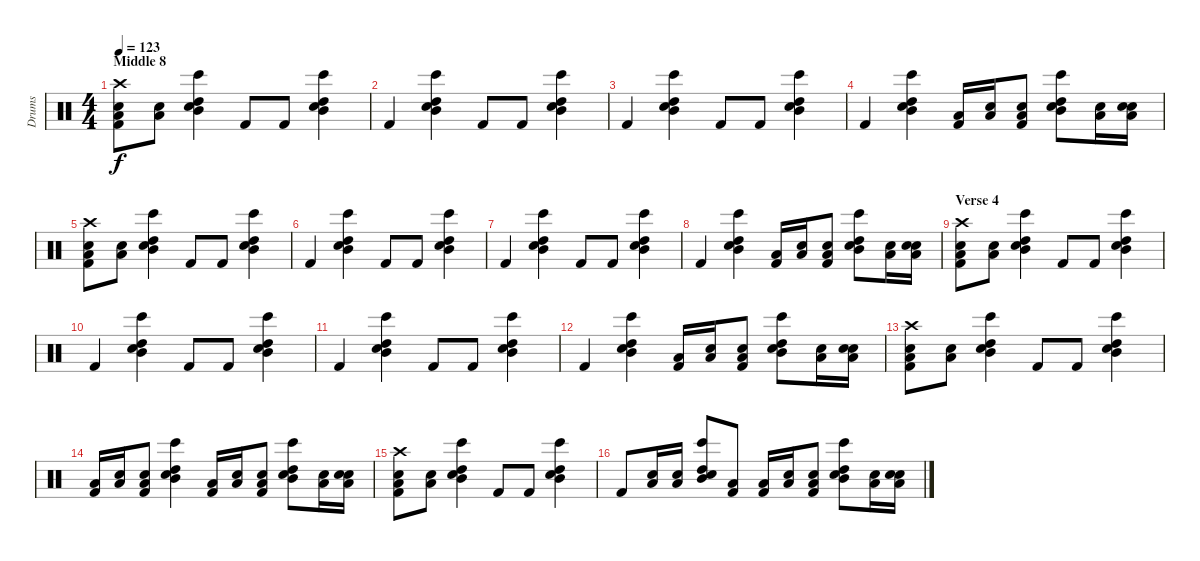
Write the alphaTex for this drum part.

\track ("Drums" "Drums") {instrument percussion}
\staff {score}
\articulation defaults
\ts (4 4)
\section ("" "Middle 8")
\tempo 123
\clef neutral
\ks c
("Crash high (hit)" "Snare (hit) 2" "Low Floor Tom (hit)" "Kick (hit) 2").8{dy f} ("Snare (hit) 2" "Low Floor Tom (hit)").8 ("Bongo High (hit)" "High Tom (hit)" "Mid Tom (hit)" "Snare (hit) 2").4 "Kick (hit) 2".8 "Kick (hit) 2".8 ("Bongo High (hit)" "High Tom (hit)" "Mid Tom (hit)" "Snare (hit) 2").4 |
"Kick (hit) 2".4 ("Bongo High (hit)" "High Tom (hit)" "Mid Tom (hit)" "Snare (hit) 2").4 "Kick (hit) 2".8 "Kick (hit) 2".8 ("Bongo High (hit)" "High Tom (hit)" "Mid Tom (hit)" "Snare (hit) 2").4 |
"Kick (hit) 2".4 ("Bongo High (hit)" "High Tom (hit)" "Mid Tom (hit)" "Snare (hit) 2").4 "Kick (hit) 2".8 "Kick (hit) 2".8 ("Bongo High (hit)" "High Tom (hit)" "Mid Tom (hit)" "Snare (hit) 2").4 |
"Kick (hit) 2".4 ("Bongo High (hit)" "High Tom (hit)" "Mid Tom (hit)" "Snare (hit) 2").4 ("Low Floor Tom (hit)" "Kick (hit) 2").16 ("Snare (hit) 2" "Low Floor Tom (hit)").16 ("Snare (hit) 2" "Low Floor Tom (hit)" "Kick (hit) 2").8 ("Bongo High (hit)" "High Tom (hit)" "Mid Tom (hit)" "Snare (hit) 2").8 ("Low Floor Tom (hit)" "Snare (hit) 2").16 ("Snare (hit) 2" "Low Floor Tom (hit)" "Snare (hit) 2").16 |
("Crash high (hit)" "Snare (hit) 2" "Low Floor Tom (hit)" "Kick (hit) 2").8 ("Snare (hit) 2" "Low Floor Tom (hit)").8 ("Bongo High (hit)" "High Tom (hit)" "Mid Tom (hit)" "Snare (hit) 2").4 "Kick (hit) 2".8 "Kick (hit) 2".8 ("Bongo High (hit)" "High Tom (hit)" "Mid Tom (hit)" "Snare (hit) 2").4 |
"Kick (hit) 2".4 ("Bongo High (hit)" "High Tom (hit)" "Mid Tom (hit)" "Snare (hit) 2").4 "Kick (hit) 2".8 "Kick (hit) 2".8 ("Bongo High (hit)" "High Tom (hit)" "Mid Tom (hit)" "Snare (hit) 2").4 |
"Kick (hit) 2".4 ("Bongo High (hit)" "High Tom (hit)" "Mid Tom (hit)" "Snare (hit) 2").4 "Kick (hit) 2".8 "Kick (hit) 2".8 ("Bongo High (hit)" "High Tom (hit)" "Mid Tom (hit)" "Snare (hit) 2").4 |
"Kick (hit) 2".4 ("Bongo High (hit)" "High Tom (hit)" "Mid Tom (hit)" "Snare (hit) 2").4 ("Low Floor Tom (hit)" "Kick (hit) 2").16 ("Snare (hit) 2" "Low Floor Tom (hit)").16 ("Snare (hit) 2" "Low Floor Tom (hit)" "Kick (hit) 2").8 ("Bongo High (hit)" "High Tom (hit)" "Mid Tom (hit)" "Snare (hit) 2").8 ("Low Floor Tom (hit)" "Snare (hit) 2").16 ("Snare (hit) 2" "Low Floor Tom (hit)" "Snare (hit) 2").16 |
\section ("" "Verse 4")
("Crash high (hit)" "Snare (hit) 2" "Low Floor Tom (hit)" "Kick (hit) 2").8 ("Snare (hit) 2" "Low Floor Tom (hit)").8 ("Bongo High (hit)" "High Tom (hit)" "Mid Tom (hit)" "Snare (hit) 2").4 "Kick (hit) 2".8 "Kick (hit) 2".8 ("Bongo High (hit)" "High Tom (hit)" "Mid Tom (hit)" "Snare (hit) 2").4 |
"Kick (hit) 2".4 ("Bongo High (hit)" "High Tom (hit)" "Mid Tom (hit)" "Snare (hit) 2").4 "Kick (hit) 2".8 "Kick (hit) 2".8 ("Bongo High (hit)" "High Tom (hit)" "Mid Tom (hit)" "Snare (hit) 2").4 |
"Kick (hit) 2".4 ("Bongo High (hit)" "High Tom (hit)" "Mid Tom (hit)" "Snare (hit) 2").4 "Kick (hit) 2".8 "Kick (hit) 2".8 ("Bongo High (hit)" "High Tom (hit)" "Mid Tom (hit)" "Snare (hit) 2").4 |
"Kick (hit) 2".4 ("Bongo High (hit)" "High Tom (hit)" "Mid Tom (hit)" "Snare (hit) 2").4 ("Low Floor Tom (hit)" "Kick (hit) 2").16 ("Snare (hit) 2" "Low Floor Tom (hit)").16 ("Snare (hit) 2" "Low Floor Tom (hit)" "Kick (hit) 2").8 ("Bongo High (hit)" "High Tom (hit)" "Mid Tom (hit)" "Snare (hit) 2").8 ("Low Floor Tom (hit)" "Snare (hit) 2").16 ("Snare (hit) 2" "Low Floor Tom (hit)" "Snare (hit) 2").16 |
("Crash high (hit)" "Snare (hit) 2" "Low Floor Tom (hit)" "Kick (hit) 2").8 ("Snare (hit) 2" "Low Floor Tom (hit)").8 ("Bongo High (hit)" "High Tom (hit)" "Mid Tom (hit)" "Snare (hit) 2").4 "Kick (hit) 2".8 "Kick (hit) 2".8 ("Bongo High (hit)" "High Tom (hit)" "Mid Tom (hit)" "Snare (hit) 2").4 |
("Low Floor Tom (hit)" "Kick (hit) 2").16 ("Snare (hit) 2" "Low Floor Tom (hit)").16 ("Snare (hit) 2" "Low Floor Tom (hit)" "Kick (hit) 2").8 ("Bongo High (hit)" "High Tom (hit)" "Mid Tom (hit)" "Snare (hit) 2").4 ("Low Floor Tom (hit)" "Kick (hit) 2").16 ("Snare (hit) 2" "Low Floor Tom (hit)").16 ("Snare (hit) 2" "Low Floor Tom (hit)" "Kick (hit) 2").8 ("Bongo High (hit)" "High Tom (hit)" "Mid Tom (hit)" "Snare (hit) 2").8 ("Low Floor Tom (hit)" "Snare (hit) 2").16 ("Snare (hit) 2" "Low Floor Tom (hit)" "Snare (hit) 2").16 |
("Crash high (hit)" "Snare (hit) 2" "Low Floor Tom (hit)" "Kick (hit) 2").8 ("Snare (hit) 2" "Low Floor Tom (hit)").8 ("Bongo High (hit)" "High Tom (hit)" "Mid Tom (hit)" "Snare (hit) 2").4 "Kick (hit) 2".8 "Kick (hit) 2".8 ("Bongo High (hit)" "High Tom (hit)" "Mid Tom (hit)" "Snare (hit) 2").4 |
"Kick (hit) 2".8 ("Snare (hit) 2" "Low Floor Tom (hit)").16 ("Snare (hit) 2" "Low Floor Tom (hit)").16 ("Bongo High (hit)" "High Tom (hit)" "Mid Tom (hit)" "Snare (hit) 2").8 ("Low Floor Tom (hit)" "Kick (hit) 2").8 ("Low Floor Tom (hit)" "Kick (hit) 2").16 ("Snare (hit) 2" "Low Floor Tom (hit)").16 ("Snare (hit) 2" "Low Floor Tom (hit)" "Kick (hit) 2").8 ("Bongo High (hit)" "High Tom (hit)" "Mid Tom (hit)" "Snare (hit) 2").8 ("Low Floor Tom (hit)" "Snare (hit) 2").16 ("Snare (hit) 2" "Low Floor Tom (hit)" "Snare (hit) 2").16
